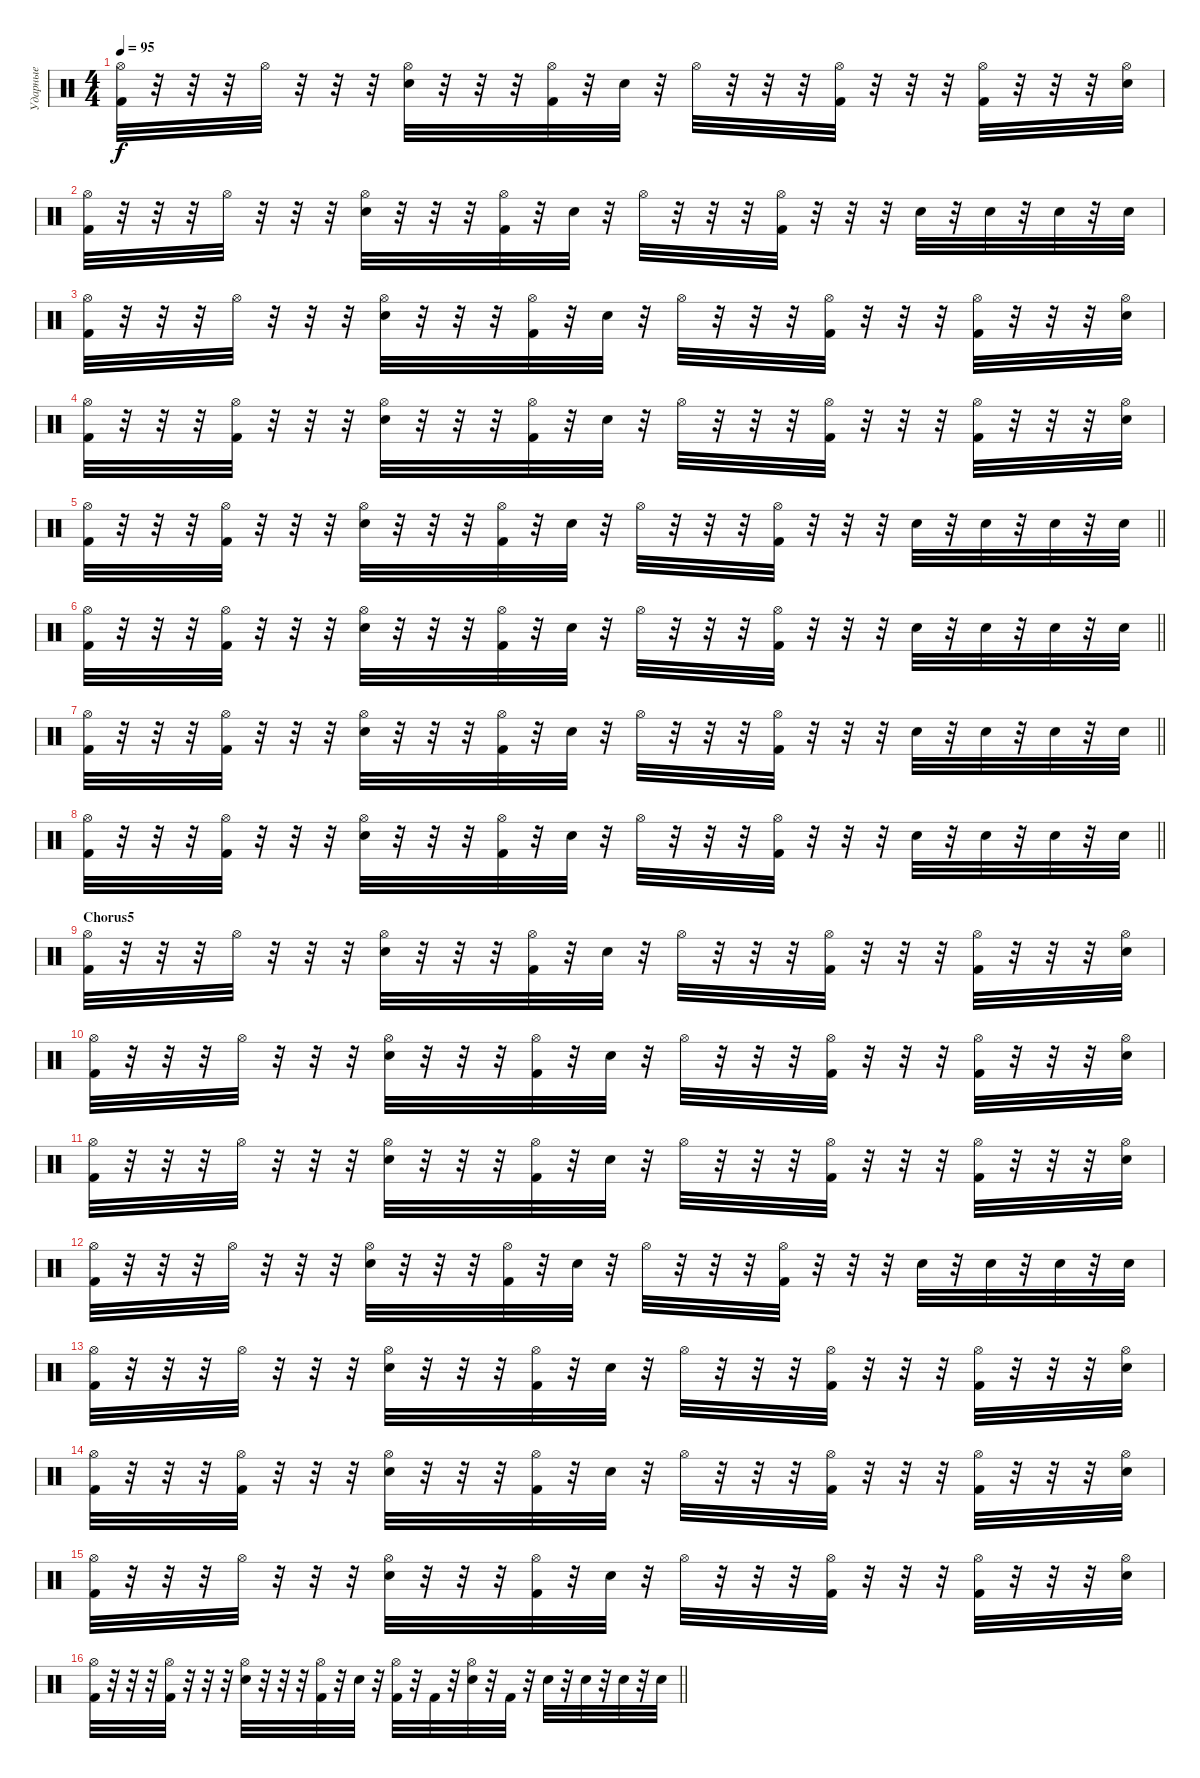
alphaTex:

\track ("Ударные" "Ударные") {instrument percussion}
\staff {score}
\articulation defaults
\ts (4 4)
\tempo 95
\clef neutral
\ks c
("Hi-Hat (open)" "Kick (hit) 2").32{dy f} r.32 r.32 r.32 "Hi-Hat (open)".32 r.32 r.32 r.32 ("Hi-Hat (open)" "Snare (hit) 2").32 r.32 r.32 r.32 ("Hi-Hat (open)" "Kick (hit) 2").32 r.32 "Snare (hit) 2".32 r.32 "Hi-Hat (open)".32 r.32 r.32 r.32 ("Hi-Hat (open)" "Kick (hit) 2").32 r.32 r.32 r.32 ("Hi-Hat (open)" "Kick (hit) 2").32 r.32 r.32 r.32 ("Hi-Hat (open)" "Snare (hit) 2").32 |
("Hi-Hat (open)" "Kick (hit) 2").32 r.32 r.32 r.32 "Hi-Hat (open)".32 r.32 r.32 r.32 ("Hi-Hat (open)" "Snare (hit) 2").32 r.32 r.32 r.32 ("Hi-Hat (open)" "Kick (hit) 2").32 r.32 "Snare (hit) 2".32 r.32 "Hi-Hat (open)".32 r.32 r.32 r.32 ("Hi-Hat (open)" "Kick (hit) 2").32 r.32 r.32 r.32 "Snare (hit) 2".32 r.32 "Snare (hit) 2".32 r.32 "Snare (hit) 2".32 r.32 "Snare (hit) 2".32 |
("Hi-Hat (open)" "Kick (hit) 2").32 r.32 r.32 r.32 "Hi-Hat (open)".32 r.32 r.32 r.32 ("Hi-Hat (open)" "Snare (hit) 2").32 r.32 r.32 r.32 ("Hi-Hat (open)" "Kick (hit) 2").32 r.32 "Snare (hit) 2".32 r.32 "Hi-Hat (open)".32 r.32 r.32 r.32 ("Hi-Hat (open)" "Kick (hit) 2").32 r.32 r.32 r.32 ("Hi-Hat (open)" "Kick (hit) 2").32 r.32 r.32 r.32 ("Hi-Hat (open)" "Snare (hit) 2").32 |
("Hi-Hat (open)" "Kick (hit) 2").32 r.32 r.32 r.32 ("Hi-Hat (open)" "Kick (hit) 2").32 r.32 r.32 r.32 ("Hi-Hat (open)" "Snare (hit) 2").32 r.32 r.32 r.32 ("Hi-Hat (open)" "Kick (hit) 2").32 r.32 "Snare (hit) 2".32 r.32 "Hi-Hat (open)".32 r.32 r.32 r.32 ("Hi-Hat (open)" "Kick (hit) 2").32 r.32 r.32 r.32 ("Hi-Hat (open)" "Kick (hit) 2").32 r.32 r.32 r.32 ("Hi-Hat (open)" "Snare (hit) 2").32 |
\barLineRight lightlight
("Hi-Hat (open)" "Kick (hit) 2").32 r.32 r.32 r.32 ("Hi-Hat (open)" "Kick (hit) 2").32 r.32 r.32 r.32 ("Hi-Hat (open)" "Snare (hit) 2").32 r.32 r.32 r.32 ("Hi-Hat (open)" "Kick (hit) 2").32 r.32 "Snare (hit) 2".32 r.32 "Hi-Hat (open)".32 r.32 r.32 r.32 ("Hi-Hat (open)" "Kick (hit) 2").32 r.32 r.32 r.32 "Snare (hit) 2".32 r.32 "Snare (hit) 2".32 r.32 "Snare (hit) 2".32 r.32 "Snare (hit) 2".32 |
\barLineRight lightlight
("Hi-Hat (open)" "Kick (hit) 2").32 r.32 r.32 r.32 ("Hi-Hat (open)" "Kick (hit) 2").32 r.32 r.32 r.32 ("Hi-Hat (open)" "Snare (hit) 2").32 r.32 r.32 r.32 ("Hi-Hat (open)" "Kick (hit) 2").32 r.32 "Snare (hit) 2".32 r.32 "Hi-Hat (open)".32 r.32 r.32 r.32 ("Hi-Hat (open)" "Kick (hit) 2").32 r.32 r.32 r.32 "Snare (hit) 2".32 r.32 "Snare (hit) 2".32 r.32 "Snare (hit) 2".32 r.32 "Snare (hit) 2".32 |
\barLineRight lightlight
("Hi-Hat (open)" "Kick (hit) 2").32 r.32 r.32 r.32 ("Hi-Hat (open)" "Kick (hit) 2").32 r.32 r.32 r.32 ("Hi-Hat (open)" "Snare (hit) 2").32 r.32 r.32 r.32 ("Hi-Hat (open)" "Kick (hit) 2").32 r.32 "Snare (hit) 2".32 r.32 "Hi-Hat (open)".32 r.32 r.32 r.32 ("Hi-Hat (open)" "Kick (hit) 2").32 r.32 r.32 r.32 "Snare (hit) 2".32 r.32 "Snare (hit) 2".32 r.32 "Snare (hit) 2".32 r.32 "Snare (hit) 2".32 |
\barLineRight lightlight
("Hi-Hat (open)" "Kick (hit) 2").32 r.32 r.32 r.32 ("Hi-Hat (open)" "Kick (hit) 2").32 r.32 r.32 r.32 ("Hi-Hat (open)" "Snare (hit) 2").32 r.32 r.32 r.32 ("Hi-Hat (open)" "Kick (hit) 2").32 r.32 "Snare (hit) 2".32 r.32 "Hi-Hat (open)".32 r.32 r.32 r.32 ("Hi-Hat (open)" "Kick (hit) 2").32 r.32 r.32 r.32 "Snare (hit) 2".32 r.32 "Snare (hit) 2".32 r.32 "Snare (hit) 2".32 r.32 "Snare (hit) 2".32 |
\section ("" "Chorus5")
("Hi-Hat (open)" "Kick (hit) 2").32{volume 12} r.32 r.32 r.32 "Hi-Hat (open)".32 r.32 r.32 r.32 ("Hi-Hat (open)" "Snare (hit) 2").32 r.32 r.32 r.32 ("Hi-Hat (open)" "Kick (hit) 2").32 r.32 "Snare (hit) 2".32 r.32 "Hi-Hat (open)".32 r.32 r.32 r.32 ("Hi-Hat (open)" "Kick (hit) 2").32 r.32 r.32 r.32 ("Hi-Hat (open)" "Kick (hit) 2").32 r.32 r.32 r.32 ("Hi-Hat (open)" "Snare (hit) 2").32 |
("Hi-Hat (open)" "Kick (hit) 2").32 r.32 r.32 r.32 "Hi-Hat (open)".32 r.32 r.32 r.32 ("Hi-Hat (open)" "Snare (hit) 2").32 r.32 r.32 r.32 ("Hi-Hat (open)" "Kick (hit) 2").32 r.32 "Snare (hit) 2".32 r.32 "Hi-Hat (open)".32 r.32 r.32 r.32 ("Hi-Hat (open)" "Kick (hit) 2").32 r.32 r.32 r.32 ("Hi-Hat (open)" "Kick (hit) 2").32 r.32 r.32 r.32 ("Hi-Hat (open)" "Snare (hit) 2").32 |
("Hi-Hat (open)" "Kick (hit) 2").32 r.32 r.32 r.32 "Hi-Hat (open)".32 r.32 r.32 r.32 ("Hi-Hat (open)" "Snare (hit) 2").32 r.32 r.32 r.32 ("Hi-Hat (open)" "Kick (hit) 2").32 r.32 "Snare (hit) 2".32 r.32 "Hi-Hat (open)".32 r.32 r.32 r.32 ("Hi-Hat (open)" "Kick (hit) 2").32 r.32 r.32 r.32 ("Hi-Hat (open)" "Kick (hit) 2").32 r.32 r.32 r.32 ("Hi-Hat (open)" "Snare (hit) 2").32 |
("Hi-Hat (open)" "Kick (hit) 2").32 r.32 r.32 r.32 "Hi-Hat (open)".32 r.32 r.32 r.32 ("Hi-Hat (open)" "Snare (hit) 2").32 r.32 r.32 r.32 ("Hi-Hat (open)" "Kick (hit) 2").32 r.32 "Snare (hit) 2".32 r.32 "Hi-Hat (open)".32 r.32 r.32 r.32 ("Hi-Hat (open)" "Kick (hit) 2").32 r.32 r.32 r.32 "Snare (hit) 2".32 r.32 "Snare (hit) 2".32 r.32 "Snare (hit) 2".32 r.32 "Snare (hit) 2".32 |
("Hi-Hat (open)" "Kick (hit) 2").32 r.32 r.32 r.32 "Hi-Hat (open)".32 r.32 r.32 r.32 ("Hi-Hat (open)" "Snare (hit) 2").32 r.32 r.32 r.32 ("Hi-Hat (open)" "Kick (hit) 2").32 r.32 "Snare (hit) 2".32 r.32 "Hi-Hat (open)".32 r.32 r.32 r.32 ("Hi-Hat (open)" "Kick (hit) 2").32 r.32 r.32 r.32 ("Hi-Hat (open)" "Kick (hit) 2").32 r.32 r.32 r.32 ("Hi-Hat (open)" "Snare (hit) 2").32 |
("Hi-Hat (open)" "Kick (hit) 2").32 r.32 r.32 r.32 ("Hi-Hat (open)" "Kick (hit) 2").32 r.32 r.32 r.32 ("Hi-Hat (open)" "Snare (hit) 2").32 r.32 r.32 r.32 ("Hi-Hat (open)" "Kick (hit) 2").32 r.32 "Snare (hit) 2".32 r.32 "Hi-Hat (open)".32 r.32 r.32 r.32 ("Hi-Hat (open)" "Kick (hit) 2").32 r.32 r.32 r.32 ("Hi-Hat (open)" "Kick (hit) 2").32 r.32 r.32 r.32 ("Hi-Hat (open)" "Snare (hit) 2").32 |
("Hi-Hat (open)" "Kick (hit) 2").32 r.32 r.32 r.32 "Hi-Hat (open)".32 r.32 r.32 r.32 ("Hi-Hat (open)" "Snare (hit) 2").32 r.32 r.32 r.32 ("Hi-Hat (open)" "Kick (hit) 2").32 r.32 "Snare (hit) 2".32 r.32 "Hi-Hat (open)".32 r.32 r.32 r.32 ("Hi-Hat (open)" "Kick (hit) 2").32 r.32 r.32 r.32 ("Hi-Hat (open)" "Kick (hit) 2").32 r.32 r.32 r.32 ("Hi-Hat (open)" "Snare (hit) 2").32 |
\barLineRight lightlight
("Hi-Hat (open)" "Kick (hit) 2").32 r.32 r.32 r.32 ("Hi-Hat (open)" "Kick (hit) 2").32 r.32 r.32 r.32 ("Hi-Hat (open)" "Snare (hit) 2").32 r.32 r.32 r.32 ("Hi-Hat (open)" "Kick (hit) 2").32 r.32 "Snare (hit) 2".32 r.32 ("Hi-Hat (open)" "Kick (hit) 2").32 r.32 "Kick (hit) 2".32 r.32 ("Hi-Hat (open)" "Snare (hit) 2").32 r.32 "Kick (hit) 2".32 r.32 "Snare (hit) 2".32 r.32 "Snare (hit) 2".32 r.32 "Snare (hit) 2".32 r.32 "Snare (hit) 2".32
